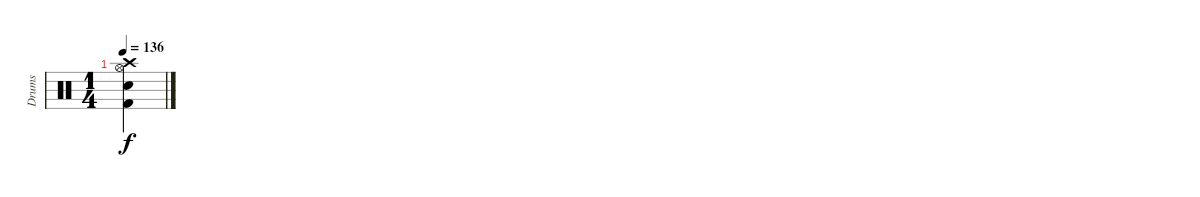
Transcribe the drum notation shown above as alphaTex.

\track ("Drums" "Drums") {instrument percussion}
\staff {score}
\articulation defaults
\ts (1 4)
\tempo 136
\clef neutral
\ks c
("Crash high (hit)" "Hi-Hat (open)" "Electric Snare (hit)" "Kick (hit) 2").4{dy f}
